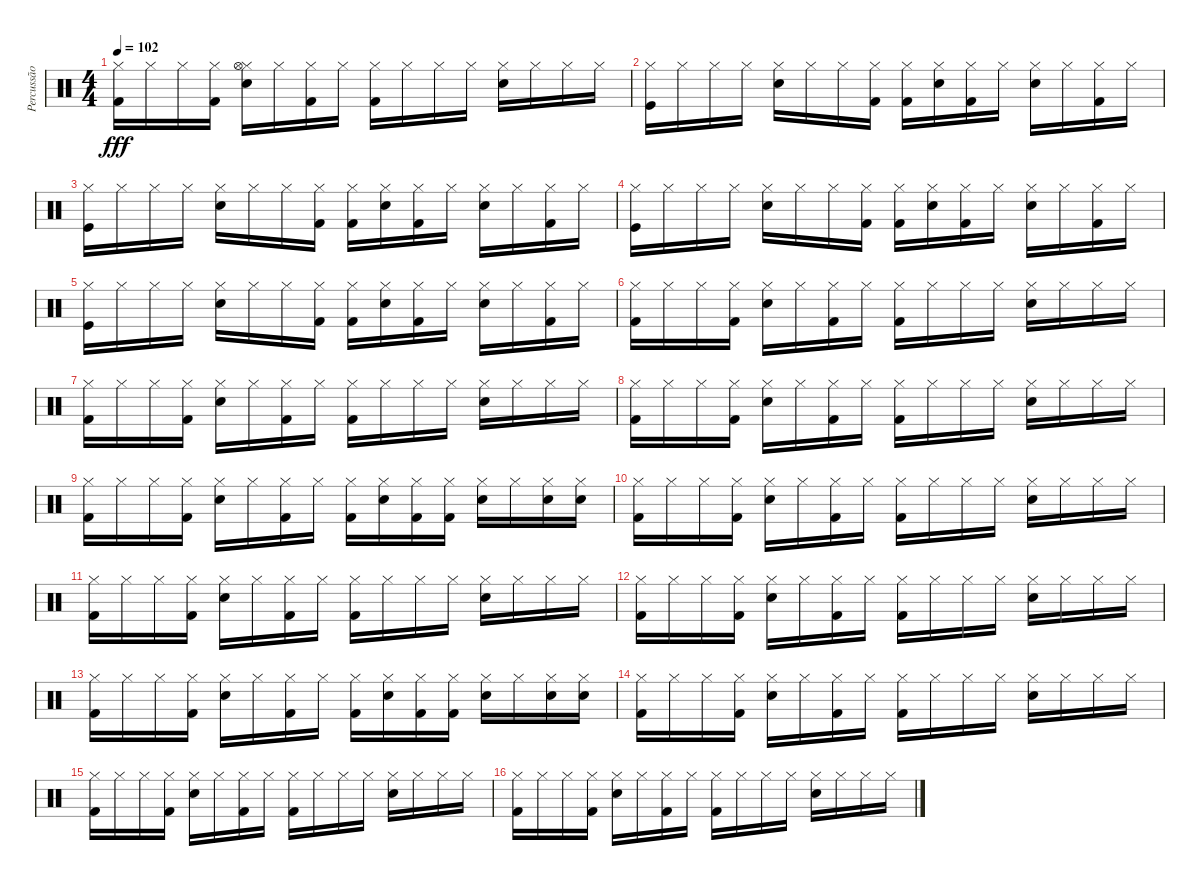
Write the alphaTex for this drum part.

\track ("Percussão" "Percussão") {instrument percussion}
\staff {score}
\articulation defaults
\ts (4 4)
\tempo 102
\clef neutral
\ks c
("Hi-Hat (closed)" "Kick (hit) 2").16{dy fff} "Hi-Hat (closed)".16 "Hi-Hat (closed)".16 ("Hi-Hat (closed)" "Kick (hit) 2").16 ("Hi-Hat (closed)" "Snare (hit) 2" "Hi-Hat (open)").16 "Hi-Hat (closed)".16 ("Hi-Hat (closed)" "Kick (hit) 2").16 "Hi-Hat (closed)".16 ("Hi-Hat (closed)" "Kick (hit) 2").16 "Hi-Hat (closed)".16 "Hi-Hat (closed)".16 "Hi-Hat (closed)".16 ("Hi-Hat (closed)" "Snare (hit) 2").16 "Hi-Hat (closed)".16 "Hi-Hat (closed)".16 "Hi-Hat (closed)".16 |
("Hi-Hat (closed)" "Kick (hit)").16 "Hi-Hat (closed)".16 "Hi-Hat (closed)".16 "Hi-Hat (closed)".16 ("Hi-Hat (closed)" "Snare (hit) 2").16 "Hi-Hat (closed)".16 "Hi-Hat (closed)".16 ("Hi-Hat (closed)" "Kick (hit) 2").16 ("Hi-Hat (closed)" "Kick (hit) 2").16 ("Hi-Hat (closed)" "Snare (hit) 2").16 ("Hi-Hat (closed)" "Kick (hit) 2").16 "Hi-Hat (closed)".16 ("Hi-Hat (closed)" "Snare (hit) 2").16 "Hi-Hat (closed)".16 ("Hi-Hat (closed)" "Kick (hit) 2").16 "Hi-Hat (closed)".16 |
("Hi-Hat (closed)" "Kick (hit)").16 "Hi-Hat (closed)".16 "Hi-Hat (closed)".16 "Hi-Hat (closed)".16 ("Hi-Hat (closed)" "Snare (hit) 2").16 "Hi-Hat (closed)".16 "Hi-Hat (closed)".16 ("Hi-Hat (closed)" "Kick (hit) 2").16 ("Hi-Hat (closed)" "Kick (hit) 2").16 ("Hi-Hat (closed)" "Snare (hit) 2").16 ("Hi-Hat (closed)" "Kick (hit) 2").16 "Hi-Hat (closed)".16 ("Hi-Hat (closed)" "Snare (hit) 2").16 "Hi-Hat (closed)".16 ("Hi-Hat (closed)" "Kick (hit) 2").16 "Hi-Hat (closed)".16 |
("Hi-Hat (closed)" "Kick (hit)").16 "Hi-Hat (closed)".16 "Hi-Hat (closed)".16 "Hi-Hat (closed)".16 ("Hi-Hat (closed)" "Snare (hit) 2").16 "Hi-Hat (closed)".16 "Hi-Hat (closed)".16 ("Hi-Hat (closed)" "Kick (hit) 2").16 ("Hi-Hat (closed)" "Kick (hit) 2").16 ("Hi-Hat (closed)" "Snare (hit) 2").16 ("Hi-Hat (closed)" "Kick (hit) 2").16 "Hi-Hat (closed)".16 ("Hi-Hat (closed)" "Snare (hit) 2").16 "Hi-Hat (closed)".16 ("Hi-Hat (closed)" "Kick (hit) 2").16 "Hi-Hat (closed)".16 |
("Hi-Hat (closed)" "Kick (hit)").16 "Hi-Hat (closed)".16 "Hi-Hat (closed)".16 "Hi-Hat (closed)".16 ("Hi-Hat (closed)" "Snare (hit) 2").16 "Hi-Hat (closed)".16 "Hi-Hat (closed)".16 ("Hi-Hat (closed)" "Kick (hit) 2").16 ("Hi-Hat (closed)" "Kick (hit) 2").16 ("Hi-Hat (closed)" "Snare (hit) 2").16 ("Hi-Hat (closed)" "Kick (hit) 2").16 "Hi-Hat (closed)".16 ("Hi-Hat (closed)" "Snare (hit) 2").16 "Hi-Hat (closed)".16 ("Hi-Hat (closed)" "Kick (hit) 2").16 "Hi-Hat (closed)".16 |
("Hi-Hat (closed)" "Kick (hit) 2").16 "Hi-Hat (closed)".16 "Hi-Hat (closed)".16 ("Hi-Hat (closed)" "Kick (hit) 2").16 ("Hi-Hat (closed)" "Snare (hit) 2").16 "Hi-Hat (closed)".16 ("Hi-Hat (closed)" "Kick (hit) 2").16 "Hi-Hat (closed)".16 ("Hi-Hat (closed)" "Kick (hit) 2").16 "Hi-Hat (closed)".16 "Hi-Hat (closed)".16 "Hi-Hat (closed)".16 ("Hi-Hat (closed)" "Snare (hit) 2").16 "Hi-Hat (closed)".16 "Hi-Hat (closed)".16 "Hi-Hat (closed)".16 |
("Hi-Hat (closed)" "Kick (hit) 2").16 "Hi-Hat (closed)".16 "Hi-Hat (closed)".16 ("Hi-Hat (closed)" "Kick (hit) 2").16 ("Hi-Hat (closed)" "Snare (hit) 2").16 "Hi-Hat (closed)".16 ("Hi-Hat (closed)" "Kick (hit) 2").16 "Hi-Hat (closed)".16 ("Hi-Hat (closed)" "Kick (hit) 2").16 "Hi-Hat (closed)".16 "Hi-Hat (closed)".16 "Hi-Hat (closed)".16 ("Hi-Hat (closed)" "Snare (hit) 2").16 "Hi-Hat (closed)".16 "Hi-Hat (closed)".16 "Hi-Hat (closed)".16 |
("Hi-Hat (closed)" "Kick (hit) 2").16 "Hi-Hat (closed)".16 "Hi-Hat (closed)".16 ("Hi-Hat (closed)" "Kick (hit) 2").16 ("Hi-Hat (closed)" "Snare (hit) 2").16 "Hi-Hat (closed)".16 ("Hi-Hat (closed)" "Kick (hit) 2").16 "Hi-Hat (closed)".16 ("Hi-Hat (closed)" "Kick (hit) 2").16 "Hi-Hat (closed)".16 "Hi-Hat (closed)".16 "Hi-Hat (closed)".16 ("Hi-Hat (closed)" "Snare (hit) 2").16 "Hi-Hat (closed)".16 "Hi-Hat (closed)".16 "Hi-Hat (closed)".16 |
("Hi-Hat (closed)" "Kick (hit) 2").16 "Hi-Hat (closed)".16 "Hi-Hat (closed)".16 ("Hi-Hat (closed)" "Kick (hit) 2").16 ("Hi-Hat (closed)" "Snare (hit) 2").16 "Hi-Hat (closed)".16 ("Hi-Hat (closed)" "Kick (hit) 2").16 "Hi-Hat (closed)".16 ("Hi-Hat (closed)" "Kick (hit) 2").16 ("Hi-Hat (closed)" "Snare (hit) 2").16 ("Hi-Hat (closed)" "Kick (hit) 2").16 ("Hi-Hat (closed)" "Kick (hit) 2").16 ("Hi-Hat (closed)" "Snare (hit) 2").16 "Hi-Hat (closed)".16 ("Hi-Hat (closed)" "Snare (hit) 2").16 ("Hi-Hat (closed)" "Snare (hit) 2").16 |
("Hi-Hat (closed)" "Kick (hit) 2").16 "Hi-Hat (closed)".16 "Hi-Hat (closed)".16 ("Hi-Hat (closed)" "Kick (hit) 2").16 ("Hi-Hat (closed)" "Snare (hit) 2").16 "Hi-Hat (closed)".16 ("Hi-Hat (closed)" "Kick (hit) 2").16 "Hi-Hat (closed)".16 ("Hi-Hat (closed)" "Kick (hit) 2").16 "Hi-Hat (closed)".16 "Hi-Hat (closed)".16 "Hi-Hat (closed)".16 ("Hi-Hat (closed)" "Snare (hit) 2").16 "Hi-Hat (closed)".16 "Hi-Hat (closed)".16 "Hi-Hat (closed)".16 |
("Hi-Hat (closed)" "Kick (hit) 2").16 "Hi-Hat (closed)".16 "Hi-Hat (closed)".16 ("Hi-Hat (closed)" "Kick (hit) 2").16 ("Hi-Hat (closed)" "Snare (hit) 2").16 "Hi-Hat (closed)".16 ("Hi-Hat (closed)" "Kick (hit) 2").16 "Hi-Hat (closed)".16 ("Hi-Hat (closed)" "Kick (hit) 2").16 "Hi-Hat (closed)".16 "Hi-Hat (closed)".16 "Hi-Hat (closed)".16 ("Hi-Hat (closed)" "Snare (hit) 2").16 "Hi-Hat (closed)".16 "Hi-Hat (closed)".16 "Hi-Hat (closed)".16 |
("Hi-Hat (closed)" "Kick (hit) 2").16 "Hi-Hat (closed)".16 "Hi-Hat (closed)".16 ("Hi-Hat (closed)" "Kick (hit) 2").16 ("Hi-Hat (closed)" "Snare (hit) 2").16 "Hi-Hat (closed)".16 ("Hi-Hat (closed)" "Kick (hit) 2").16 "Hi-Hat (closed)".16 ("Hi-Hat (closed)" "Kick (hit) 2").16 "Hi-Hat (closed)".16 "Hi-Hat (closed)".16 "Hi-Hat (closed)".16 ("Hi-Hat (closed)" "Snare (hit) 2").16 "Hi-Hat (closed)".16 "Hi-Hat (closed)".16 "Hi-Hat (closed)".16 |
("Hi-Hat (closed)" "Kick (hit) 2").16 "Hi-Hat (closed)".16 "Hi-Hat (closed)".16 ("Hi-Hat (closed)" "Kick (hit) 2").16 ("Hi-Hat (closed)" "Snare (hit) 2").16 "Hi-Hat (closed)".16 ("Hi-Hat (closed)" "Kick (hit) 2").16 "Hi-Hat (closed)".16 ("Hi-Hat (closed)" "Kick (hit) 2").16 ("Hi-Hat (closed)" "Snare (hit) 2").16 ("Hi-Hat (closed)" "Kick (hit) 2").16 ("Hi-Hat (closed)" "Kick (hit) 2").16 ("Hi-Hat (closed)" "Snare (hit) 2").16 "Hi-Hat (closed)".16 ("Hi-Hat (closed)" "Snare (hit) 2").16 ("Hi-Hat (closed)" "Snare (hit) 2").16 |
("Hi-Hat (closed)" "Kick (hit) 2").16 "Hi-Hat (closed)".16 "Hi-Hat (closed)".16 ("Hi-Hat (closed)" "Kick (hit) 2").16 ("Hi-Hat (closed)" "Snare (hit) 2").16 "Hi-Hat (closed)".16 ("Hi-Hat (closed)" "Kick (hit) 2").16 "Hi-Hat (closed)".16 ("Hi-Hat (closed)" "Kick (hit) 2").16 "Hi-Hat (closed)".16 "Hi-Hat (closed)".16 "Hi-Hat (closed)".16 ("Hi-Hat (closed)" "Snare (hit) 2").16 "Hi-Hat (closed)".16 "Hi-Hat (closed)".16 "Hi-Hat (closed)".16 |
("Hi-Hat (closed)" "Kick (hit) 2").16 "Hi-Hat (closed)".16 "Hi-Hat (closed)".16 ("Hi-Hat (closed)" "Kick (hit) 2").16 ("Hi-Hat (closed)" "Snare (hit) 2").16 "Hi-Hat (closed)".16 ("Hi-Hat (closed)" "Kick (hit) 2").16 "Hi-Hat (closed)".16 ("Hi-Hat (closed)" "Kick (hit) 2").16 "Hi-Hat (closed)".16 "Hi-Hat (closed)".16 "Hi-Hat (closed)".16 ("Hi-Hat (closed)" "Snare (hit) 2").16 "Hi-Hat (closed)".16 "Hi-Hat (closed)".16 "Hi-Hat (closed)".16 |
("Hi-Hat (closed)" "Kick (hit) 2").16 "Hi-Hat (closed)".16 "Hi-Hat (closed)".16 ("Hi-Hat (closed)" "Kick (hit) 2").16 ("Hi-Hat (closed)" "Snare (hit) 2").16 "Hi-Hat (closed)".16 ("Hi-Hat (closed)" "Kick (hit) 2").16 "Hi-Hat (closed)".16 ("Hi-Hat (closed)" "Kick (hit) 2").16 "Hi-Hat (closed)".16 "Hi-Hat (closed)".16 "Hi-Hat (closed)".16 ("Hi-Hat (closed)" "Snare (hit) 2").16 "Hi-Hat (closed)".16 "Hi-Hat (closed)".16 "Hi-Hat (closed)".16
